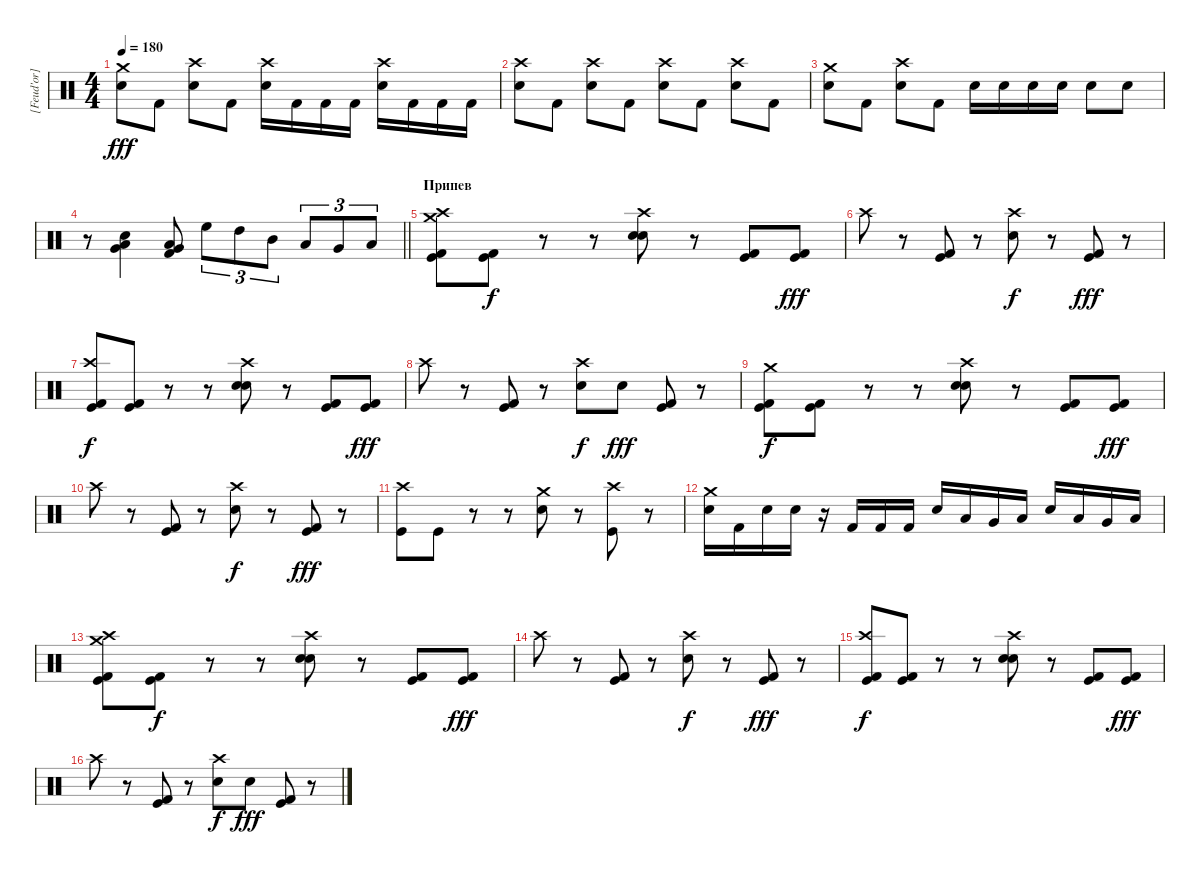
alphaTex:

\track ("[Feud'or] - Drums" "[Feud'or] ") {instrument percussion}
\staff {score}
\articulation defaults
\ts (4 4)
\tempo 180
\clef neutral
\ks c
("Crash medium (hit)" "Electric Snare (hit)").8{dy fff} "Kick (hit) 2".8 ("Crash high (hit)" "Electric Snare (hit)").8 "Kick (hit) 2".8 ("Crash high (hit)" "Electric Snare (hit)").16 "Kick (hit) 2".16 "Kick (hit) 2".16 "Kick (hit) 2".16 ("Crash high (hit)" "Electric Snare (hit)").16 "Kick (hit) 2".16 "Kick (hit) 2".16 "Kick (hit) 2".16 |
("Crash high (hit)" "Electric Snare (hit)").8 "Kick (hit) 2".8 ("Crash high (hit)" "Electric Snare (hit)").8 "Kick (hit) 2".8 ("Crash high (hit)" "Electric Snare (hit)").8 "Kick (hit) 2".8 ("Crash high (hit)" "Electric Snare (hit)").8 "Kick (hit) 2".8 |
("Crash medium (hit)" "Electric Snare (hit)").8 "Kick (hit) 2".8 ("Crash high (hit)" "Electric Snare (hit)").8 "Kick (hit) 2".8 "Electric Snare (hit)".16 "Electric Snare (hit)".16 "Electric Snare (hit)".16 "Electric Snare (hit)".16 "Electric Snare (hit)".8 "Electric Snare (hit)".8 |
\barLineRight lightlight
r.8 ("Low Tom (hit)" "Very Low Tom (hit)" "Snare (hit) 2").4 ("Very Low Tom (hit)" "Low Floor Tom (hit)" "Kick (hit) 2").8 "High Floor Tom (hit)".8{tu (3 2)} "High Tom (hit)".8{tu (3 2)} "Mid Tom (hit)".8{tu (3 2)} "Low Tom (hit)".8{tu (3 2)} "Very Low Tom (hit)".8{tu (3 2)} "Low Floor Tom (hit)".8{tu (3 2)} |
\section ("" "Припев")
("Crash high (hit)" "Crash medium (hit)" "Kick (hit)" "Kick (hit) 2").8 ("Kick (hit)" "Kick (hit) 2").8{dy f} r.8 r.8 ("Crash high (hit)" "Snare (hit) 2" "Electric Snare (hit)").8 r.8 ("Kick (hit)" "Kick (hit) 2").8 ("Kick (hit) 2" "Kick (hit)").8{dy fff} |
"Crash high (hit)".8 r.8 ("Kick (hit)" "Kick (hit) 2").8 r.8 ("Crash high (hit)" "Snare (hit) 2").8{dy f} r.8 ("Kick (hit) 2" "Kick (hit)").8{dy fff} r.8 |
("Crash high (hit)" "Kick (hit)" "Kick (hit) 2").8{dy f} ("Kick (hit)" "Kick (hit) 2").8 r.8 r.8 ("Crash high (hit)" "Snare (hit) 2" "Electric Snare (hit)").8 r.8 ("Kick (hit)" "Kick (hit) 2").8 ("Kick (hit) 2" "Kick (hit)").8{dy fff} |
"Crash high (hit)".8 r.8 ("Kick (hit)" "Kick (hit) 2").8 r.8 ("Crash high (hit)" "Snare (hit) 2").8{dy f} "Snare (hit) 2".8{dy fff} ("Kick (hit) 2" "Kick (hit)").8 r.8 |
("Crash medium (hit)" "Kick (hit)" "Kick (hit) 2").8{dy f} ("Kick (hit)" "Kick (hit) 2").8 r.8 r.8 ("Crash high (hit)" "Snare (hit) 2" "Electric Snare (hit)").8 r.8 ("Kick (hit)" "Kick (hit) 2").8 ("Kick (hit) 2" "Kick (hit)").8{dy fff} |
"Crash high (hit)".8 r.8 ("Kick (hit)" "Kick (hit) 2").8 r.8 ("Crash high (hit)" "Snare (hit) 2").8{dy f} r.8 ("Kick (hit) 2" "Kick (hit)").8{dy fff} r.8 |
("Crash high (hit)" "Kick (hit)").8 "Kick (hit)".8 r.8 r.8 ("Crash medium (hit)" "Snare (hit) 2").8 r.8 ("Crash high (hit)" "Kick (hit)").8 r.8 |
("Crash medium (hit)" "Snare (hit) 2").16 "Kick (hit) 2".16 "Snare (hit) 2".16 "Snare (hit) 2".16 r.16 "Kick (hit) 2".16 "Kick (hit) 2".16 "Kick (hit) 2".16 "Electric Snare (hit)".16 "Low Tom (hit)".16 "Very Low Tom (hit)".16 "Low Floor Tom (hit)".16 "Electric Snare (hit)".16 "Low Tom (hit)".16 "Very Low Tom (hit)".16 "Low Floor Tom (hit)".16 |
("Crash high (hit)" "Crash medium (hit)" "Kick (hit)" "Kick (hit) 2").8 ("Kick (hit)" "Kick (hit) 2").8{dy f} r.8 r.8 ("Crash high (hit)" "Snare (hit) 2" "Electric Snare (hit)").8 r.8 ("Kick (hit)" "Kick (hit) 2").8 ("Kick (hit) 2" "Kick (hit)").8{dy fff} |
"Crash high (hit)".8 r.8 ("Kick (hit)" "Kick (hit) 2").8 r.8 ("Crash high (hit)" "Snare (hit) 2").8{dy f} r.8 ("Kick (hit) 2" "Kick (hit)").8{dy fff} r.8 |
("Crash high (hit)" "Kick (hit)" "Kick (hit) 2").8{dy f} ("Kick (hit)" "Kick (hit) 2").8 r.8 r.8 ("Crash high (hit)" "Snare (hit) 2" "Electric Snare (hit)").8 r.8 ("Kick (hit)" "Kick (hit) 2").8 ("Kick (hit) 2" "Kick (hit)").8{dy fff} |
"Crash high (hit)".8 r.8 ("Kick (hit)" "Kick (hit) 2").8 r.8 ("Crash high (hit)" "Snare (hit) 2").8{dy f} "Snare (hit) 2".8{dy fff} ("Kick (hit) 2" "Kick (hit)").8 r.8
